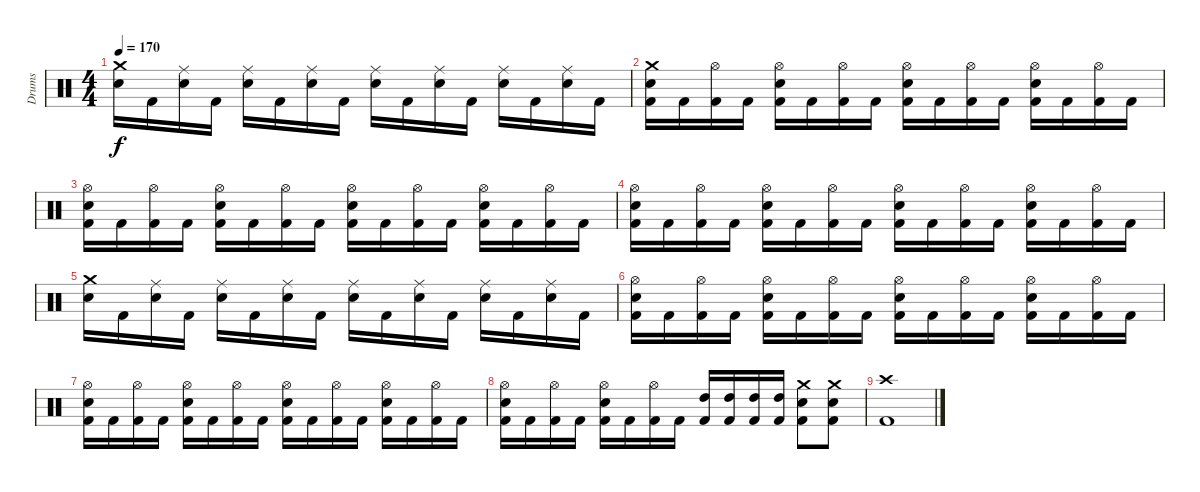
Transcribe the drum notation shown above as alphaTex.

\track ("Drums" "Drums") {instrument percussion}
\staff {score}
\articulation defaults
\ts (4 4)
\tempo 170
\clef neutral
\ks c
("Crash medium (hit)" "Electric Snare (hit)").16{dy f} "Kick (hit) 2".16 ("Ride (middle)" "Electric Snare (hit)").16 "Kick (hit) 2".16 ("Ride (middle)" "Electric Snare (hit)").16 "Kick (hit) 2".16 ("Ride (middle)" "Electric Snare (hit)").16 "Kick (hit) 2".16 ("Ride (middle)" "Electric Snare (hit)").16 "Kick (hit) 2".16 ("Ride (middle)" "Electric Snare (hit)").16 "Kick (hit) 2".16 ("Ride (middle)" "Electric Snare (hit)").16 "Kick (hit) 2".16 ("Ride (middle)" "Electric Snare (hit)").16 "Kick (hit) 2".16 |
("Crash medium (hit)" "Electric Snare (hit)" "Kick (hit) 2").16 "Kick (hit) 2".16 ("Hi-Hat (open)" "Kick (hit) 2").16 "Kick (hit) 2".16 ("Hi-Hat (open)" "Electric Snare (hit)" "Kick (hit) 2").16 "Kick (hit) 2".16 ("Hi-Hat (open)" "Kick (hit) 2").16 "Kick (hit) 2".16 ("Hi-Hat (open)" "Electric Snare (hit)" "Kick (hit) 2").16 "Kick (hit) 2".16 ("Hi-Hat (open)" "Kick (hit) 2").16 "Kick (hit) 2".16 ("Hi-Hat (open)" "Electric Snare (hit)" "Kick (hit) 2").16 "Kick (hit) 2".16 ("Hi-Hat (open)" "Kick (hit) 2").16 "Kick (hit) 2".16 |
("Hi-Hat (open)" "Electric Snare (hit)" "Kick (hit) 2").16 "Kick (hit) 2".16 ("Hi-Hat (open)" "Kick (hit) 2").16 "Kick (hit) 2".16 ("Hi-Hat (open)" "Electric Snare (hit)" "Kick (hit) 2").16 "Kick (hit) 2".16 ("Hi-Hat (open)" "Kick (hit) 2").16 "Kick (hit) 2".16 ("Hi-Hat (open)" "Electric Snare (hit)" "Kick (hit) 2").16 "Kick (hit) 2".16 ("Hi-Hat (open)" "Kick (hit) 2").16 "Kick (hit) 2".16 ("Hi-Hat (open)" "Electric Snare (hit)" "Kick (hit) 2").16 "Kick (hit) 2".16 ("Hi-Hat (open)" "Kick (hit) 2").16 "Kick (hit) 2".16 |
("Hi-Hat (open)" "Electric Snare (hit)" "Kick (hit) 2").16 "Kick (hit) 2".16 ("Hi-Hat (open)" "Kick (hit) 2").16 "Kick (hit) 2".16 ("Hi-Hat (open)" "Electric Snare (hit)" "Kick (hit) 2").16 "Kick (hit) 2".16 ("Hi-Hat (open)" "Kick (hit) 2").16 "Kick (hit) 2".16 ("Hi-Hat (open)" "Electric Snare (hit)" "Kick (hit) 2").16 "Kick (hit) 2".16 ("Hi-Hat (open)" "Kick (hit) 2").16 "Kick (hit) 2".16 ("Hi-Hat (open)" "Electric Snare (hit)" "Kick (hit) 2").16 "Kick (hit) 2".16 ("Hi-Hat (open)" "Kick (hit) 2").16 "Kick (hit) 2".16 |
("Crash medium (hit)" "Electric Snare (hit)").16 "Kick (hit) 2".16 ("Ride (middle)" "Electric Snare (hit)").16 "Kick (hit) 2".16 ("Ride (middle)" "Electric Snare (hit)").16 "Kick (hit) 2".16 ("Ride (middle)" "Electric Snare (hit)").16 "Kick (hit) 2".16 ("Ride (middle)" "Electric Snare (hit)").16 "Kick (hit) 2".16 ("Ride (middle)" "Electric Snare (hit)").16 "Kick (hit) 2".16 ("Ride (middle)" "Electric Snare (hit)").16 "Kick (hit) 2".16 ("Ride (middle)" "Electric Snare (hit)").16 "Kick (hit) 2".16 |
("Hi-Hat (open)" "Electric Snare (hit)" "Kick (hit) 2").16 "Kick (hit) 2".16 ("Hi-Hat (open)" "Kick (hit) 2").16 "Kick (hit) 2".16 ("Hi-Hat (open)" "Electric Snare (hit)" "Kick (hit) 2").16 "Kick (hit) 2".16 ("Hi-Hat (open)" "Kick (hit) 2").16 "Kick (hit) 2".16 ("Hi-Hat (open)" "Electric Snare (hit)" "Kick (hit) 2").16 "Kick (hit) 2".16 ("Hi-Hat (open)" "Kick (hit) 2").16 "Kick (hit) 2".16 ("Hi-Hat (open)" "Electric Snare (hit)" "Kick (hit) 2").16 "Kick (hit) 2".16 ("Hi-Hat (open)" "Kick (hit) 2").16 "Kick (hit) 2".16 |
("Hi-Hat (open)" "Electric Snare (hit)" "Kick (hit) 2").16 "Kick (hit) 2".16 ("Hi-Hat (open)" "Kick (hit) 2").16 "Kick (hit) 2".16 ("Hi-Hat (open)" "Electric Snare (hit)" "Kick (hit) 2").16 "Kick (hit) 2".16 ("Hi-Hat (open)" "Kick (hit) 2").16 "Kick (hit) 2".16 ("Hi-Hat (open)" "Electric Snare (hit)" "Kick (hit) 2").16 "Kick (hit) 2".16 ("Hi-Hat (open)" "Kick (hit) 2").16 "Kick (hit) 2".16 ("Hi-Hat (open)" "Electric Snare (hit)" "Kick (hit) 2").16 "Kick (hit) 2".16 ("Hi-Hat (open)" "Kick (hit) 2").16 "Kick (hit) 2".16 |
("Hi-Hat (open)" "Electric Snare (hit)" "Kick (hit) 2").16 "Kick (hit) 2".16 ("Hi-Hat (open)" "Kick (hit) 2").16 "Kick (hit) 2".16 ("Hi-Hat (open)" "Electric Snare (hit)" "Kick (hit) 2").16 "Kick (hit) 2".16 ("Hi-Hat (open)" "Kick (hit) 2").16 "Kick (hit) 2".16 ("High Tom (hit)" "Kick (hit) 2").16 ("High Tom (hit)" "Kick (hit) 2").16 ("High Tom (hit)" "Kick (hit) 2").16 ("High Tom (hit)" "Kick (hit) 2").16 ("Crash medium (hit)" "Electric Snare (hit)" "Kick (hit) 2").8 ("Crash medium (hit)" "Electric Snare (hit)" "Kick (hit) 2").8 |
("Crash high (hit)" "Kick (hit) 2").1
